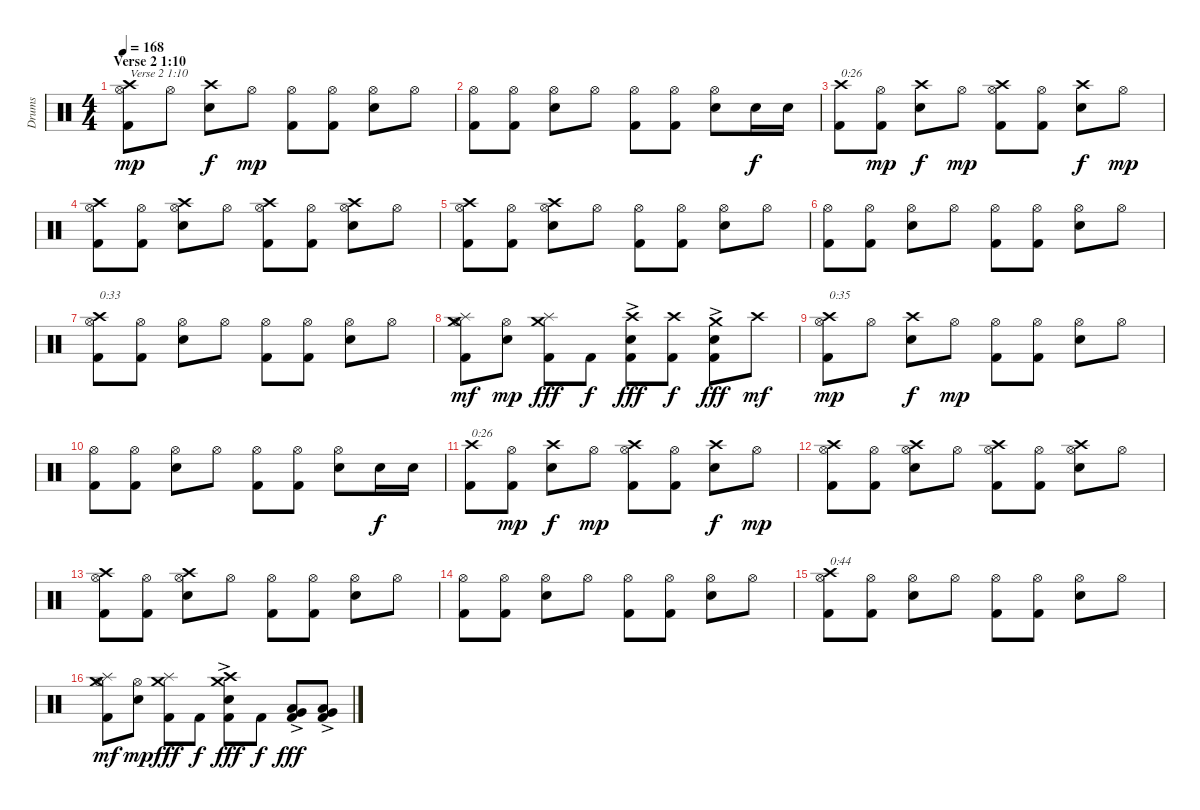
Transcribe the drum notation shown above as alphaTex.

\track ("Drums" "Drums") {instrument percussion}
\staff {score}
\articulation defaults
\ts (4 4)
\section ("" "Verse 2 1:10")
\tempo 168
\clef neutral
\ks c
("Kick (hit) 2" "Hi-Hat (open)" "Crash high (hit)").8{txt "Verse 2 1:10" dy mp} "Hi-Hat (open)".8 ("Electric Snare (hit)" "Crash high (hit)").8{dy f} "Hi-Hat (open)".8{dy mp} ("Kick (hit) 2" "Hi-Hat (open)").8 ("Kick (hit) 2" "Hi-Hat (open)").8 ("Electric Snare (hit)" "Hi-Hat (open)").8 "Hi-Hat (open)".8 |
("Kick (hit) 2" "Hi-Hat (open)").8 ("Kick (hit) 2" "Hi-Hat (open)").8 ("Electric Snare (hit)" "Hi-Hat (open)").8 "Hi-Hat (open)".8 ("Kick (hit) 2" "Hi-Hat (open)").8 ("Kick (hit) 2" "Hi-Hat (open)").8 ("Electric Snare (hit)" "Hi-Hat (open)").8 "Electric Snare (hit)".16{dy f} "Electric Snare (hit)".16 |
("Kick (hit) 2" "Crash high (hit)").8{txt "0:26"} ("Kick (hit) 2" "Hi-Hat (open)").8{dy mp} ("Electric Snare (hit)" "Crash high (hit)").8{dy f} "Hi-Hat (open)".8{dy mp} ("Kick (hit) 2" "Hi-Hat (open)" "Crash high (hit)").8 ("Kick (hit) 2" "Hi-Hat (open)").8 ("Electric Snare (hit)" "Crash high (hit)").8{dy f} "Hi-Hat (open)".8{dy mp} |
("Kick (hit) 2" "Hi-Hat (open)" "Crash high (hit)").8 ("Kick (hit) 2" "Hi-Hat (open)").8 ("Electric Snare (hit)" "Hi-Hat (open)" "Crash high (hit)").8 "Hi-Hat (open)".8 ("Kick (hit) 2" "Hi-Hat (open)" "Crash high (hit)").8 ("Kick (hit) 2" "Hi-Hat (open)").8 ("Electric Snare (hit)" "Hi-Hat (open)" "Crash high (hit)").8 "Hi-Hat (open)".8 |
("Kick (hit) 2" "Hi-Hat (open)" "Crash high (hit)").8 ("Kick (hit) 2" "Hi-Hat (open)").8 ("Electric Snare (hit)" "Hi-Hat (open)" "Crash high (hit)").8 "Hi-Hat (open)".8 ("Kick (hit) 2" "Hi-Hat (open)").8 ("Kick (hit) 2" "Hi-Hat (open)").8 ("Electric Snare (hit)" "Hi-Hat (open)").8 "Hi-Hat (open)".8 |
("Kick (hit) 2" "Hi-Hat (open)").8 ("Kick (hit) 2" "Hi-Hat (open)").8 ("Electric Snare (hit)" "Hi-Hat (open)").8 "Hi-Hat (open)".8 ("Kick (hit) 2" "Hi-Hat (open)").8 ("Kick (hit) 2" "Hi-Hat (open)").8 ("Electric Snare (hit)" "Hi-Hat (open)").8 "Hi-Hat (open)".8 |
("Kick (hit) 2" "Hi-Hat (open)" "Crash high (hit)").8{txt "0:33"} ("Kick (hit) 2" "Hi-Hat (open)").8 ("Electric Snare (hit)" "Hi-Hat (open)").8 "Hi-Hat (open)".8 ("Kick (hit) 2" "Hi-Hat (open)").8 ("Kick (hit) 2" "Hi-Hat (open)").8 ("Electric Snare (hit)" "Hi-Hat (open)").8 "Hi-Hat (open)".8 |
("Kick (hit) 2" "Hi-Hat (open)" "Splash (hit)" "Crash medium (hit)").8{dy mf} ("Electric Snare (hit)" "Hi-Hat (open)").8{dy mp} ("Kick (hit) 2" "Splash (hit)" "Crash medium (hit)").8{dy fff} "Kick (hit) 2".8{dy f} ("Kick (hit) 2" "Electric Snare (hit)"{ac} "Crash high (hit)").8{dy fff} ("Kick (hit) 2" "Crash high (hit)").8{dy f} ("Kick (hit) 2" "Electric Snare (hit)"{ac} "Crash medium (hit)").8{dy fff} "Crash high (hit)".8{dy mf} |
("Kick (hit) 2" "Hi-Hat (open)" "Crash high (hit)").8{txt "0:35" dy mp} "Hi-Hat (open)".8 ("Electric Snare (hit)" "Crash high (hit)").8{dy f} "Hi-Hat (open)".8{dy mp} ("Kick (hit) 2" "Hi-Hat (open)").8 ("Kick (hit) 2" "Hi-Hat (open)").8 ("Electric Snare (hit)" "Hi-Hat (open)").8 "Hi-Hat (open)".8 |
("Kick (hit) 2" "Hi-Hat (open)").8 ("Kick (hit) 2" "Hi-Hat (open)").8 ("Electric Snare (hit)" "Hi-Hat (open)").8 "Hi-Hat (open)".8 ("Kick (hit) 2" "Hi-Hat (open)").8 ("Kick (hit) 2" "Hi-Hat (open)").8 ("Electric Snare (hit)" "Hi-Hat (open)").8 "Electric Snare (hit)".16{dy f} "Electric Snare (hit)".16 |
("Kick (hit) 2" "Crash high (hit)").8{txt "0:26"} ("Kick (hit) 2" "Hi-Hat (open)").8{dy mp} ("Electric Snare (hit)" "Crash high (hit)").8{dy f} "Hi-Hat (open)".8{dy mp} ("Kick (hit) 2" "Hi-Hat (open)" "Crash high (hit)").8 ("Kick (hit) 2" "Hi-Hat (open)").8 ("Electric Snare (hit)" "Crash high (hit)").8{dy f} "Hi-Hat (open)".8{dy mp} |
("Kick (hit) 2" "Hi-Hat (open)" "Crash high (hit)").8 ("Kick (hit) 2" "Hi-Hat (open)").8 ("Electric Snare (hit)" "Hi-Hat (open)" "Crash high (hit)").8 "Hi-Hat (open)".8 ("Kick (hit) 2" "Hi-Hat (open)" "Crash high (hit)").8 ("Kick (hit) 2" "Hi-Hat (open)").8 ("Electric Snare (hit)" "Hi-Hat (open)" "Crash high (hit)").8 "Hi-Hat (open)".8 |
("Kick (hit) 2" "Hi-Hat (open)" "Crash high (hit)").8 ("Kick (hit) 2" "Hi-Hat (open)").8 ("Electric Snare (hit)" "Hi-Hat (open)" "Crash high (hit)").8 "Hi-Hat (open)".8 ("Kick (hit) 2" "Hi-Hat (open)").8 ("Kick (hit) 2" "Hi-Hat (open)").8 ("Electric Snare (hit)" "Hi-Hat (open)").8 "Hi-Hat (open)".8 |
("Kick (hit) 2" "Hi-Hat (open)").8 ("Kick (hit) 2" "Hi-Hat (open)").8 ("Electric Snare (hit)" "Hi-Hat (open)").8 "Hi-Hat (open)".8 ("Kick (hit) 2" "Hi-Hat (open)").8 ("Kick (hit) 2" "Hi-Hat (open)").8 ("Electric Snare (hit)" "Hi-Hat (open)").8 "Hi-Hat (open)".8 |
("Kick (hit) 2" "Hi-Hat (open)" "Crash high (hit)").8{txt "0:44"} ("Kick (hit) 2" "Hi-Hat (open)").8 ("Electric Snare (hit)" "Hi-Hat (open)").8 "Hi-Hat (open)".8 ("Kick (hit) 2" "Hi-Hat (open)").8 ("Kick (hit) 2" "Hi-Hat (open)").8 ("Electric Snare (hit)" "Hi-Hat (open)").8 "Hi-Hat (open)".8 |
("Kick (hit) 2" "Hi-Hat (open)" "Splash (hit)" "Crash medium (hit)").8{dy mf} ("Electric Snare (hit)" "Hi-Hat (open)").8{dy mp} ("Kick (hit) 2" "Splash (hit)" "Crash medium (hit)").8{dy fff} "Kick (hit) 2".8{dy f} ("Kick (hit) 2" "Electric Snare (hit)"{ac} "Crash medium (hit)" "Crash high (hit)").8{dy fff} "Kick (hit) 2".8{dy f} ("Kick (hit) 2" "Low Tom (hit)"{ac} "Very Low Tom (hit)"{ac}).8{dy fff} ("Kick (hit) 2" "Low Tom (hit)"{ac} "Very Low Tom (hit)"{ac}).8
